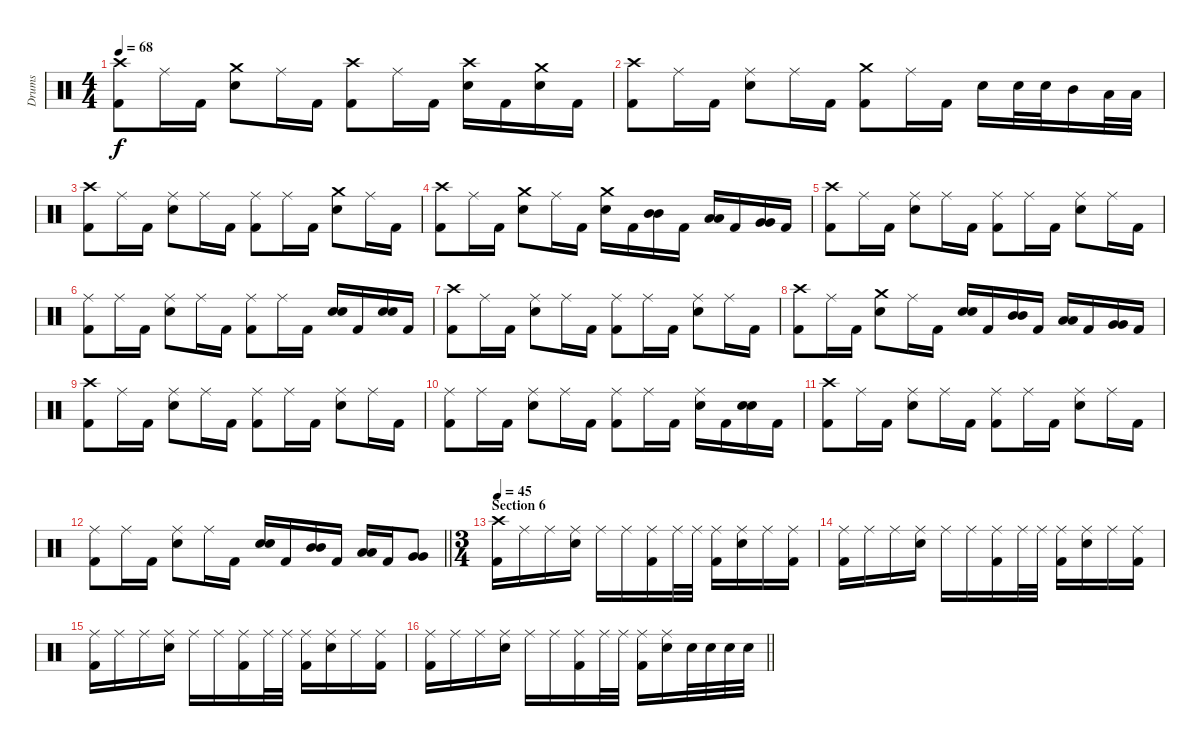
\track ("Drums" "Drums") {instrument percussion}
\staff {score}
\articulation defaults
\ts (4 4)
\tempo 68
\clef neutral
\ks c
("Crash high (hit)" "Kick (hit) 2").8{dy f} "Ride (middle)".16 "Kick (hit) 2".16 ("Crash medium (hit)" "Electric Snare (hit)").8 "Ride (middle)".16 "Kick (hit) 2".16 ("Crash high (hit)" "Kick (hit) 2").8 "Ride (middle)".16 "Kick (hit) 2".16 ("Crash high (hit)" "Electric Snare (hit)").16 "Kick (hit) 2".16 ("Crash medium (hit)" "Electric Snare (hit)").16 "Kick (hit) 2".16 |
("Crash high (hit)" "Kick (hit) 2").8 "Ride (middle)".16 "Kick (hit) 2".16 ("Ride (middle)" "Electric Snare (hit)").8 "Ride (middle)".16 "Kick (hit) 2".16 ("Crash medium (hit)" "Kick (hit) 2").8 "Ride (middle)".16 "Kick (hit) 2".16 "Electric Snare (hit)".16 "Electric Snare (hit)".32 "Electric Snare (hit)".32 "Mid Tom (hit)".16 "Low Tom (hit)".32 "Low Tom (hit)".32 |
("Crash high (hit)" "Kick (hit) 2").8 "Ride (middle)".16 "Kick (hit) 2".16 ("Ride (middle)" "Electric Snare (hit)").8 "Ride (middle)".16 "Kick (hit) 2".16 ("Ride (middle)" "Kick (hit) 2").8 "Ride (middle)".16 "Kick (hit) 2".16 ("Crash medium (hit)" "Electric Snare (hit)").8 "Ride (middle)".16 "Kick (hit) 2".16 |
("Crash high (hit)" "Kick (hit) 2").8 "Ride (middle)".16 "Kick (hit) 2".16 ("Crash medium (hit)" "Electric Snare (hit)").8 "Ride (middle)".16 "Kick (hit) 2".16 ("Crash medium (hit)" "Electric Snare (hit)").16 "Kick (hit) 2".16 ("Mid Tom (hit)" "Mid Tom (hit)").16{bu 60} "Kick (hit) 2".16 ("Low Tom (hit)" "Low Tom (hit)").16{bu 60} "Kick (hit) 2".16 ("Very Low Tom (hit)" "Very Low Tom (hit)").16{bu 60} "Kick (hit) 2".16 |
("Crash high (hit)" "Kick (hit) 2").8 "Ride (middle)".16 "Kick (hit) 2".16 ("Ride (middle)" "Electric Snare (hit)").8 "Ride (middle)".16 "Kick (hit) 2".16 ("Ride (middle)" "Kick (hit) 2").8 "Ride (middle)".16 "Kick (hit) 2".16 ("Ride (middle)" "Electric Snare (hit)").8 "Ride (middle)".16 "Kick (hit) 2".16 |
("Ride (middle)" "Kick (hit) 2").8 "Ride (middle)".16 "Kick (hit) 2".16 ("Ride (middle)" "Electric Snare (hit)").8 "Ride (middle)".16 "Kick (hit) 2".16 ("Ride (middle)" "Kick (hit) 2").8 "Ride (middle)".16 "Kick (hit) 2".16 ("Electric Snare (hit)" "Electric Snare (hit)").16{bu 60} "Kick (hit) 2".16 ("Electric Snare (hit)" "Electric Snare (hit)").16{bu 60} "Kick (hit) 2".16 |
("Crash high (hit)" "Kick (hit) 2").8 "Ride (middle)".16 "Kick (hit) 2".16 ("Ride (middle)" "Electric Snare (hit)").8 "Ride (middle)".16 "Kick (hit) 2".16 ("Ride (middle)" "Kick (hit) 2").8 "Ride (middle)".16 "Kick (hit) 2".16 ("Ride (middle)" "Electric Snare (hit)").8 "Ride (middle)".16 "Kick (hit) 2".16 |
("Crash high (hit)" "Kick (hit) 2").8 "Ride (middle)".16 "Kick (hit) 2".16 ("Crash medium (hit)" "Electric Snare (hit)").8 "Ride (middle)".16 "Kick (hit) 2".16 ("Electric Snare (hit)" "Electric Snare (hit)").16{bu 60} "Kick (hit) 2".16 ("Mid Tom (hit)" "Mid Tom (hit)").16{bu 60} "Kick (hit) 2".16 ("Low Tom (hit)" "Low Tom (hit)").16{bu 60} "Kick (hit) 2".16 ("Very Low Tom (hit)" "Very Low Tom (hit)").16{bu 60} "Kick (hit) 2".16 |
("Crash high (hit)" "Kick (hit) 2").8 "Ride (middle)".16 "Kick (hit) 2".16 ("Ride (middle)" "Electric Snare (hit)").8 "Ride (middle)".16 "Kick (hit) 2".16 ("Ride (middle)" "Kick (hit) 2").8 "Ride (middle)".16 "Kick (hit) 2".16 ("Ride (middle)" "Electric Snare (hit)").8 "Ride (middle)".16 "Kick (hit) 2".16 |
("Ride (middle)" "Kick (hit) 2").8 "Ride (middle)".16 "Kick (hit) 2".16 ("Ride (middle)" "Electric Snare (hit)").8 "Ride (middle)".16 "Kick (hit) 2".16 ("Ride (middle)" "Kick (hit) 2").8 "Ride (middle)".16 "Kick (hit) 2".16 ("Ride (middle)" "Electric Snare (hit)").16 "Kick (hit) 2".16 ("Electric Snare (hit)" "Electric Snare (hit)").16{bu 60} "Kick (hit) 2".16 |
("Crash high (hit)" "Kick (hit) 2").8 "Ride (middle)".16 "Kick (hit) 2".16 ("Ride (middle)" "Electric Snare (hit)").8 "Ride (middle)".16 "Kick (hit) 2".16 ("Ride (middle)" "Kick (hit) 2").8 "Ride (middle)".16 "Kick (hit) 2".16 ("Ride (middle)" "Electric Snare (hit)").8 "Ride (middle)".16 "Kick (hit) 2".16 |
\barLineRight lightlight
("Ride (middle)" "Kick (hit) 2").8 "Ride (middle)".16 "Kick (hit) 2".16 ("Ride (middle)" "Electric Snare (hit)").8 "Ride (middle)".16 "Kick (hit) 2".16 ("Electric Snare (hit)" "Electric Snare (hit)").16{bu 60} "Kick (hit) 2".16 ("Mid Tom (hit)" "Mid Tom (hit)").16{bu 60} "Kick (hit) 2".16 ("Low Tom (hit)" "Low Tom (hit)").16{bu 60} "Kick (hit) 2".16 ("Very Low Tom (hit)" "Very Low Tom (hit)").8{bu 60} |
\ts (3 4)
\section ("" "Section 6")
\tempo 45
("Crash high (hit)" "Kick (hit) 2").16 "Ride (middle)".16 "Ride (middle)".16 ("Ride (middle)" "Electric Snare (hit)").16 "Ride (middle)".16 "Ride (middle)".16 ("Ride (middle)" "Kick (hit) 2").16 "Ride (middle)".32 "Ride (middle)".32 ("Ride (middle)" "Kick (hit) 2").16 ("Ride (middle)" "Electric Snare (hit)").16 "Ride (middle)".16 ("Ride (middle)" "Kick (hit) 2").16 |
("Ride (middle)" "Kick (hit) 2").16 "Ride (middle)".16 "Ride (middle)".16 ("Ride (middle)" "Electric Snare (hit)").16 "Ride (middle)".16 "Ride (middle)".16 ("Ride (middle)" "Kick (hit) 2").16 "Ride (middle)".32 "Ride (middle)".32 ("Ride (middle)" "Kick (hit) 2").16 ("Ride (middle)" "Electric Snare (hit)").16 "Ride (middle)".16 ("Ride (middle)" "Kick (hit) 2").16 |
("Ride (middle)" "Kick (hit) 2").16 "Ride (middle)".16 "Ride (middle)".16 ("Ride (middle)" "Electric Snare (hit)").16 "Ride (middle)".16 "Ride (middle)".16 ("Ride (middle)" "Kick (hit) 2").16 "Ride (middle)".32 "Ride (middle)".32 ("Ride (middle)" "Kick (hit) 2").16 ("Ride (middle)" "Electric Snare (hit)").16 "Ride (middle)".16 ("Ride (middle)" "Kick (hit) 2").16 |
\barLineRight lightlight
("Ride (middle)" "Kick (hit) 2").16 "Ride (middle)".16 "Ride (middle)".16 ("Ride (middle)" "Electric Snare (hit)").16 "Ride (middle)".16 "Ride (middle)".16 ("Ride (middle)" "Kick (hit) 2").16 "Ride (middle)".32 "Ride (middle)".32 ("Ride (middle)" "Kick (hit) 2").16 ("Ride (middle)" "Electric Snare (hit)").16 "Electric Snare (hit)".32 "Electric Snare (hit)".32 "Electric Snare (hit)".32 "Electric Snare (hit)".32
